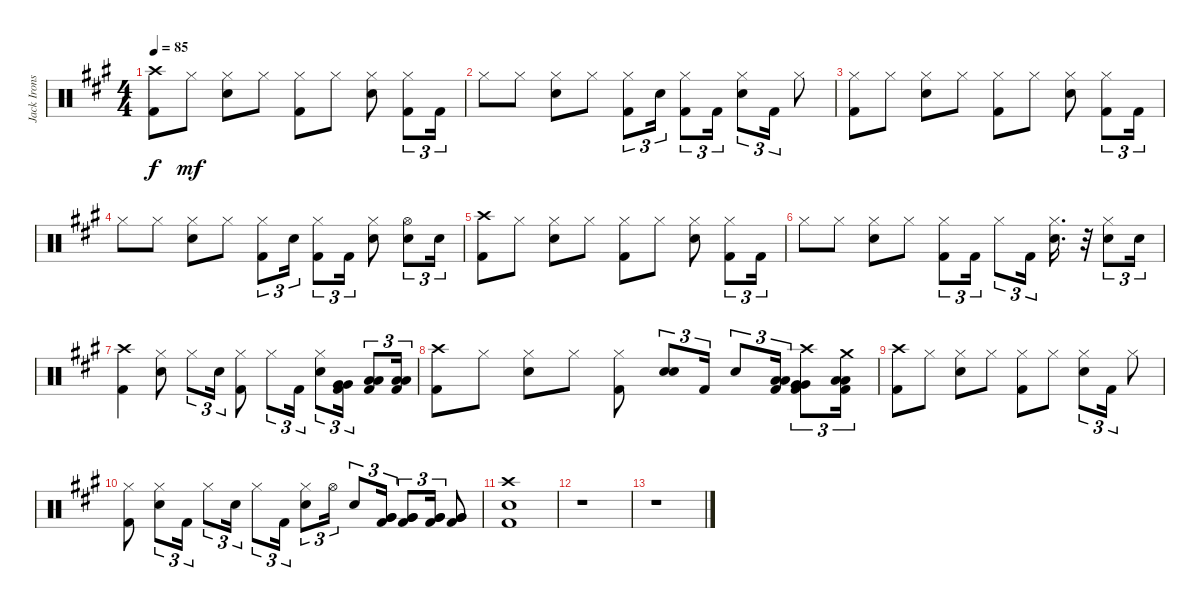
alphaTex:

\track ("Jack Irons" "Jack Irons") {instrument percussion}
\staff {score}
\articulation defaults
\ts (4 4)
\tempo 85
\clef neutral
\ks a
("Crash high (hit)" "Kick (hit) 2").8{dy f} "Hi-Hat (closed)".8{dy mf} ("Hi-Hat (closed)" "Electric Snare (hit)").8 "Hi-Hat (closed)".8 ("Hi-Hat (closed)" "Kick (hit) 2").8 "Hi-Hat (closed)".8 ("Hi-Hat (closed)" "Electric Snare (hit)").8 ("Hi-Hat (closed)" "Kick (hit) 2").8{tu (3 2)} "Kick (hit) 2".16{tu (3 2)} |
"Hi-Hat (closed)".8 "Hi-Hat (closed)".8 ("Hi-Hat (closed)" "Electric Snare (hit)").8 "Hi-Hat (closed)".8 ("Hi-Hat (closed)" "Kick (hit) 2").8{tu (3 2)} "Electric Snare (hit)".16{tu (3 2)} ("Hi-Hat (closed)" "Kick (hit) 2").8{tu (3 2)} "Kick (hit) 2".16{tu (3 2)} ("Hi-Hat (closed)" "Electric Snare (hit)").8{tu (3 2)} "Kick (hit) 2".16{tu (3 2)} "Hi-Hat (closed)".8 |
("Hi-Hat (closed)" "Kick (hit) 2").8 "Hi-Hat (closed)".8 ("Hi-Hat (closed)" "Electric Snare (hit)").8 "Hi-Hat (closed)".8 ("Hi-Hat (closed)" "Kick (hit) 2").8 "Hi-Hat (closed)".8 ("Hi-Hat (closed)" "Electric Snare (hit)").8 ("Hi-Hat (closed)" "Kick (hit) 2").8{tu (3 2)} "Kick (hit) 2".16{tu (3 2)} |
"Hi-Hat (closed)".8 "Hi-Hat (closed)".8 ("Hi-Hat (closed)" "Electric Snare (hit)").8 "Hi-Hat (closed)".8 ("Hi-Hat (closed)" "Kick (hit) 2").8{tu (3 2)} "Electric Snare (hit)".16{tu (3 2)} ("Hi-Hat (closed)" "Kick (hit) 2").8{tu (3 2)} "Kick (hit) 2".16{tu (3 2)} ("Hi-Hat (closed)" "Electric Snare (hit)").8 ("Hi-Hat (open)" "Electric Snare (hit)").8{tu (3 2)} "Electric Snare (hit)".16{tu (3 2)} |
("Crash high (hit)" "Kick (hit) 2").8 "Hi-Hat (closed)".8 ("Hi-Hat (closed)" "Electric Snare (hit)").8 "Hi-Hat (closed)".8 ("Hi-Hat (closed)" "Kick (hit) 2").8 "Hi-Hat (closed)".8 ("Hi-Hat (closed)" "Electric Snare (hit)").8 ("Hi-Hat (closed)" "Kick (hit) 2").8{tu (3 2)} "Kick (hit) 2".16{tu (3 2)} |
"Hi-Hat (closed)".8 "Hi-Hat (closed)".8 ("Hi-Hat (closed)" "Electric Snare (hit)").8 "Hi-Hat (closed)".8 ("Hi-Hat (closed)" "Kick (hit) 2").8{tu (3 2)} "Kick (hit) 2".16{tu (3 2)} "Hi-Hat (closed)".8{tu (3 2)} "Kick (hit) 2".16{tu (3 2)} ("Hi-Hat (closed)" "Electric Snare (hit)").16{d} r.32 ("Hi-Hat (closed)" "Electric Snare (hit)").8{tu (3 2)} "Electric Snare (hit)".16{tu (3 2)} |
("Crash high (hit)" "Kick (hit) 2").4 ("Hi-Hat (closed)" "Electric Snare (hit)").8 "Hi-Hat (closed)".8{tu (3 2)} "Electric Snare (hit)".16{tu (3 2)} ("Hi-Hat (closed)" "Kick (hit) 2").8 "Hi-Hat (closed)".8{tu (3 2)} "Kick (hit) 2".16{tu (3 2)} ("Hi-Hat (closed)" "Electric Snare (hit)").8{tu (3 2)} ("Very Low Tom (hit)" "Very Low Tom (hit)" "Kick (hit) 2").16{tu (3 2)} ("Low Floor Tom (hit)" "Low Floor Tom (hit)" "Kick (hit) 2").8{tu (3 2)} ("Low Floor Tom (hit)" "Low Floor Tom (hit)" "Kick (hit) 2").16{tu (3 2)} |
("Crash high (hit)" "Kick (hit) 2").8 "Hi-Hat (closed)".8 ("Hi-Hat (closed)" "Electric Snare (hit)").8 "Hi-Hat (closed)".8 ("Hi-Hat (closed)" "Kick (hit) 2").8 ("Electric Snare (hit)" "Electric Snare (hit)").8{tu (3 2)} "Kick (hit) 2".16{tu (3 2)} "Electric Snare (hit)".8{tu (3 2)} ("Low Tom (hit)" "Low Tom (hit)" "Kick (hit) 2").16{tu (3 2)} ("Crash high (hit)" "Very Low Tom (hit)" "Very Low Tom (hit)" "Kick (hit) 2").8{tu (3 2)} ("Crash medium (hit)" "Low Floor Tom (hit)" "Low Floor Tom (hit)" "Kick (hit) 2").16{tu (3 2)} |
("Crash high (hit)" "Kick (hit) 2").8 "Hi-Hat (closed)".8 ("Hi-Hat (closed)" "Electric Snare (hit)").8 "Hi-Hat (closed)".8 ("Hi-Hat (closed)" "Kick (hit) 2").8 "Hi-Hat (closed)".8 ("Hi-Hat (closed)" "Electric Snare (hit)").8{tu (3 2)} "Kick (hit) 2".16{tu (3 2)} "Hi-Hat (closed)".8 |
("Hi-Hat (closed)" "Kick (hit) 2").8 ("Hi-Hat (closed)" "Electric Snare (hit)").8{tu (3 2)} "Kick (hit) 2".16{tu (3 2)} "Hi-Hat (closed)".8{tu (3 2)} "Electric Snare (hit)".16{tu (3 2)} "Hi-Hat (closed)".8{tu (3 2)} "Kick (hit) 2".16{tu (3 2)} ("Hi-Hat (closed)" "Electric Snare (hit)").8{tu (3 2)} "Hi-Hat (open)".16{tu (3 2)} "Electric Snare (hit)".8{tu (3 2)} ("Very Low Tom (hit)" "Very Low Tom (hit)" "Kick (hit) 2").16{tu (3 2)} ("Very Low Tom (hit)" "Very Low Tom (hit)" "Kick (hit) 2").8{tu (3 2)} ("Very Low Tom (hit)" "Very Low Tom (hit)" "Kick (hit) 2").16{tu (3 2)} ("Very Low Tom (hit)" "Very Low Tom (hit)" "Kick (hit) 2").8 |
("Crash high (hit)" "Electric Snare (hit)" "Kick (hit) 2").1 |
r.1 |
r.1
